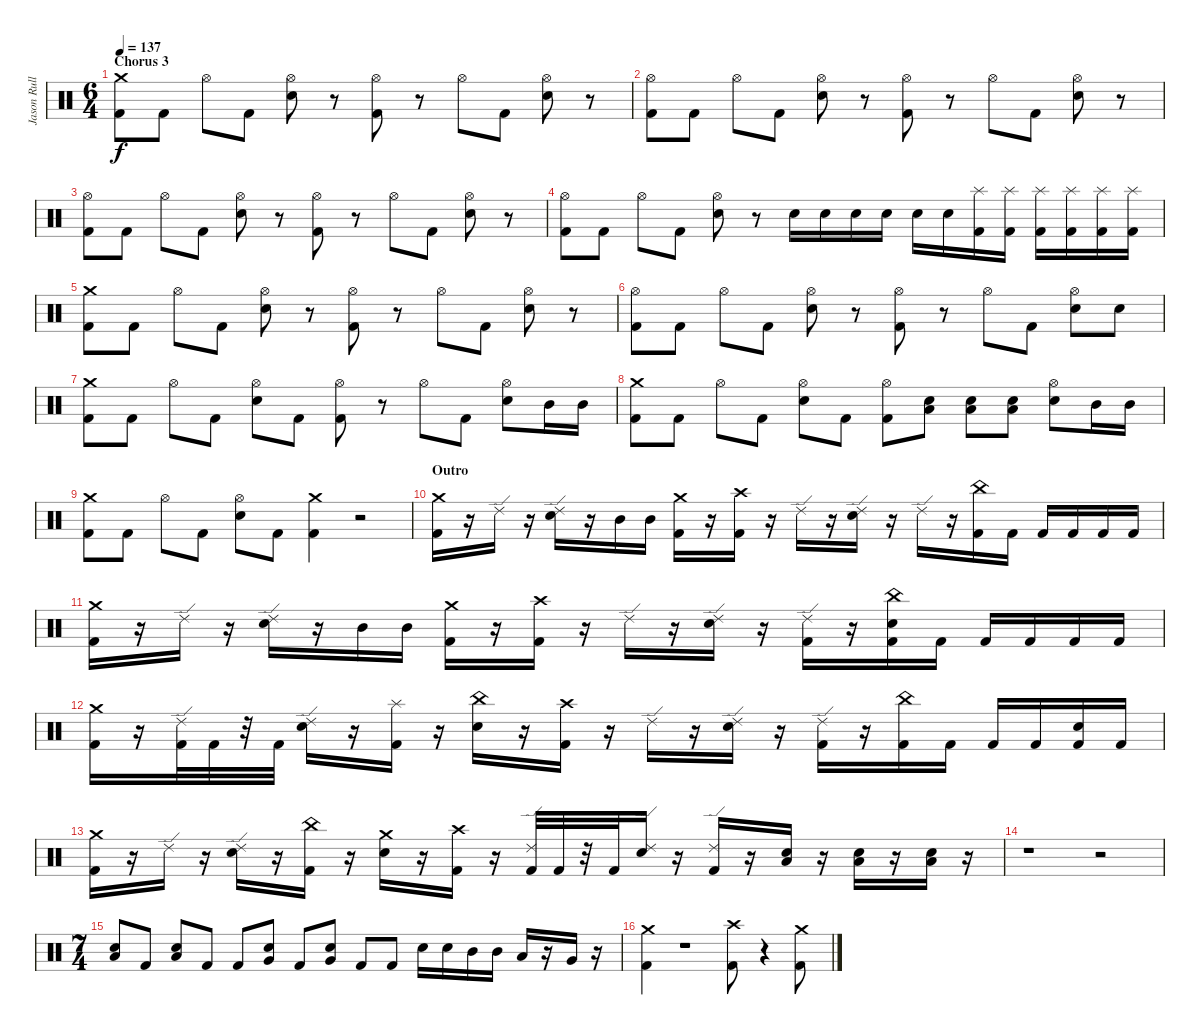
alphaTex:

\track ("Jason Rullo" "Jason Rull") {instrument percussion}
\staff {score}
\articulation defaults
\ts (6 4)
\section ("" "Chorus 3")
\tempo 137
\clef neutral
\ks c
("Crash medium (hit)" "Kick (hit) 2").8{dy f} "Kick (hit) 2".8 "Hi-Hat (open)".8 "Kick (hit) 2".8 ("Hi-Hat (open)" "Electric Snare (hit)").8 r.8 ("Hi-Hat (open)" "Kick (hit) 2").8 r.8 "Hi-Hat (open)".8 "Kick (hit) 2".8 ("Hi-Hat (open)" "Electric Snare (hit)").8 r.8 |
("Hi-Hat (open)" "Kick (hit) 2").8 "Kick (hit) 2".8 "Hi-Hat (open)".8 "Kick (hit) 2".8 ("Hi-Hat (open)" "Electric Snare (hit)").8 r.8 ("Hi-Hat (open)" "Kick (hit) 2").8 r.8 "Hi-Hat (open)".8 "Kick (hit) 2".8 ("Hi-Hat (open)" "Electric Snare (hit)").8 r.8 |
("Hi-Hat (open)" "Kick (hit) 2").8 "Kick (hit) 2".8 "Hi-Hat (open)".8 "Kick (hit) 2".8 ("Hi-Hat (open)" "Electric Snare (hit)").8 r.8 ("Hi-Hat (open)" "Kick (hit) 2").8 r.8 "Hi-Hat (open)".8 "Kick (hit) 2".8 ("Hi-Hat (open)" "Electric Snare (hit)").8 r.8 |
("Hi-Hat (open)" "Kick (hit) 2").8 "Kick (hit) 2".8 "Hi-Hat (open)".8 "Kick (hit) 2".8 ("Hi-Hat (open)" "Electric Snare (hit)").8 r.8 "Electric Snare (hit)".16 "Electric Snare (hit)".16 "Electric Snare (hit)".16 "Electric Snare (hit)".16 "Electric Snare (hit)".16 "Electric Snare (hit)".16 ("Splash (hit)" "Kick (hit) 2").16 ("Splash (hit)" "Kick (hit) 2").16 ("Splash (hit)" "Kick (hit) 2").16 ("Splash (hit)" "Kick (hit) 2").16 ("Splash (hit)" "Kick (hit) 2").16 ("Splash (hit)" "Kick (hit) 2").16 |
("Crash medium (hit)" "Kick (hit) 2").8 "Kick (hit) 2".8 "Hi-Hat (open)".8 "Kick (hit) 2".8 ("Hi-Hat (open)" "Electric Snare (hit)").8 r.8 ("Hi-Hat (open)" "Kick (hit) 2").8 r.8 "Hi-Hat (open)".8 "Kick (hit) 2".8 ("Hi-Hat (open)" "Electric Snare (hit)").8 r.8 |
("Hi-Hat (open)" "Kick (hit) 2").8 "Kick (hit) 2".8 "Hi-Hat (open)".8 "Kick (hit) 2".8 ("Hi-Hat (open)" "Electric Snare (hit)").8 r.8 ("Hi-Hat (open)" "Kick (hit) 2").8 r.8 "Hi-Hat (open)".8 "Kick (hit) 2".8 ("Hi-Hat (open)" "Electric Snare (hit)").8 "Electric Snare (hit)".8 |
("Crash medium (hit)" "Kick (hit) 2").8 "Kick (hit) 2".8 "Hi-Hat (open)".8 "Kick (hit) 2".8 ("Hi-Hat (open)" "Electric Snare (hit)").8 "Kick (hit) 2".8 ("Hi-Hat (open)" "Kick (hit) 2").8 r.8 "Hi-Hat (open)".8 "Kick (hit) 2".8 ("Hi-Hat (open)" "Electric Snare (hit)").8 "Mid Tom (hit)".16 "Mid Tom (hit)".16 |
("Crash medium (hit)" "Kick (hit) 2").8 "Kick (hit) 2".8 "Hi-Hat (open)".8 "Kick (hit) 2".8 ("Hi-Hat (open)" "Electric Snare (hit)").8 "Kick (hit) 2".8 ("Hi-Hat (open)" "Kick (hit) 2").8 ("Low Tom (hit)" "Electric Snare (hit)").8 ("Low Tom (hit)" "Electric Snare (hit)").8 ("Electric Snare (hit)" "Low Tom (hit)").8 ("Hi-Hat (open)" "Electric Snare (hit)").8 "Mid Tom (hit)".16 "Mid Tom (hit)".16 |
("Crash medium (hit)" "Kick (hit) 2").8 "Kick (hit) 2".8 "Hi-Hat (open)".8 "Kick (hit) 2".8 ("Hi-Hat (open)" "Electric Snare (hit)").8 "Kick (hit) 2".8 ("Crash medium (hit)" "Kick (hit) 2").4 r.2 |
\section ("" "Outro")
("Crash medium (hit)" "Kick (hit) 2").16 r.16 "Ride (edge) 2".16 r.16 ("Ride (edge) 2" "Electric Snare (hit)").16 r.16 "Mid Tom (hit)".16 "Mid Tom (hit)".16 ("Crash medium (hit)" "Kick (hit) 2").16 r.16 ("Crash high (hit)" "Kick (hit) 2").16 r.16 "Ride (edge) 2".16 r.16 ("Ride (edge) 2" "Electric Snare (hit)").16 r.16 "Ride (edge) 2".16 r.16 ("China (hit)" "Kick (hit) 2").16 "Kick (hit) 2".16 "Kick (hit) 2".16 "Kick (hit) 2".16 "Kick (hit) 2".16 "Kick (hit) 2".16 |
("Crash medium (hit)" "Kick (hit) 2").16 r.16 "Ride (edge) 2".16 r.16 ("Ride (edge) 2" "Electric Snare (hit)").16 r.16 "Mid Tom (hit)".16 "Mid Tom (hit)".16 ("Crash medium (hit)" "Kick (hit) 2").16 r.16 ("Crash high (hit)" "Kick (hit) 2").16 r.16 "Ride (edge) 2".16 r.16 ("Ride (edge) 2" "Electric Snare (hit)").16 r.16 ("Kick (hit) 2" "Ride (edge) 2").16 r.16 ("Electric Snare (hit)" "China (hit)" "Kick (hit) 2").16 "Kick (hit) 2".16 "Kick (hit) 2".16 "Kick (hit) 2".16 "Kick (hit) 2".16 "Kick (hit) 2".16 |
("Crash medium (hit)" "Kick (hit) 2").16 r.16 ("Kick (hit) 2" "Ride (edge) 2").32 "Kick (hit) 2".32 r.32 "Kick (hit) 2".32 ("Ride (edge) 2" "Electric Snare (hit)").16 r.16 ("Splash (hit)" "Kick (hit) 2").16 r.16 ("China (hit)" "Electric Snare (hit)").16 r.16 ("Crash high (hit)" "Kick (hit) 2").16 r.16 "Ride (edge) 2".16 r.16 ("Ride (edge) 2" "Electric Snare (hit)").16 r.16 ("Kick (hit) 2" "Ride (edge) 2").16 r.16 ("China (hit)" "Kick (hit) 2").16 "Kick (hit) 2".16 "Kick (hit) 2".16 "Kick (hit) 2".16 ("Electric Snare (hit)" "Kick (hit) 2").16 "Kick (hit) 2".16 |
("Crash medium (hit)" "Kick (hit) 2").16 r.16 "Ride (edge) 2".16 r.16 ("Ride (edge) 2" "Electric Snare (hit)").16 r.16 ("China (hit)" "Kick (hit) 2").16 r.16 ("Electric Snare (hit)" "Crash medium (hit)").16 r.16 ("Crash high (hit)" "Kick (hit) 2").16 r.16 ("Kick (hit) 2" "Ride (edge) 2").32 "Kick (hit) 2".32 r.32 "Kick (hit) 2".32 ("Ride (edge) 2" "Electric Snare (hit)").16 r.16 ("Kick (hit) 2" "Ride (edge) 2").16 r.16 ("Low Tom (hit)" "Electric Snare (hit)").16 r.16 ("Low Tom (hit)" "Electric Snare (hit)").16 r.16 ("Low Tom (hit)" "Electric Snare (hit)").16 r.16 |
r.1 r.2 |
\ts (7 4)
("Low Tom (hit)" "Electric Snare (hit)").8 "Kick (hit) 2".8 ("Low Tom (hit)" "Electric Snare (hit)").8 "Kick (hit) 2".8 "Kick (hit) 2".8 ("Very Low Tom (hit)" "Electric Snare (hit)").8 "Kick (hit) 2".8 ("Very Low Tom (hit)" "Electric Snare (hit)").8 "Kick (hit) 2".8 "Kick (hit) 2".8 "Electric Snare (hit)".16 "Electric Snare (hit)".16 "Mid Tom (hit)".16 "Mid Tom (hit)".16 "Low Tom (hit)".16 r.16 "Very Low Tom (hit)".16 r.16 |
("Kick (hit) 2" "Crash medium (hit)").4 r.1 ("Crash high (hit)" "Kick (hit) 2").8 r.4 ("Kick (hit) 2" "Crash medium (hit)").8
